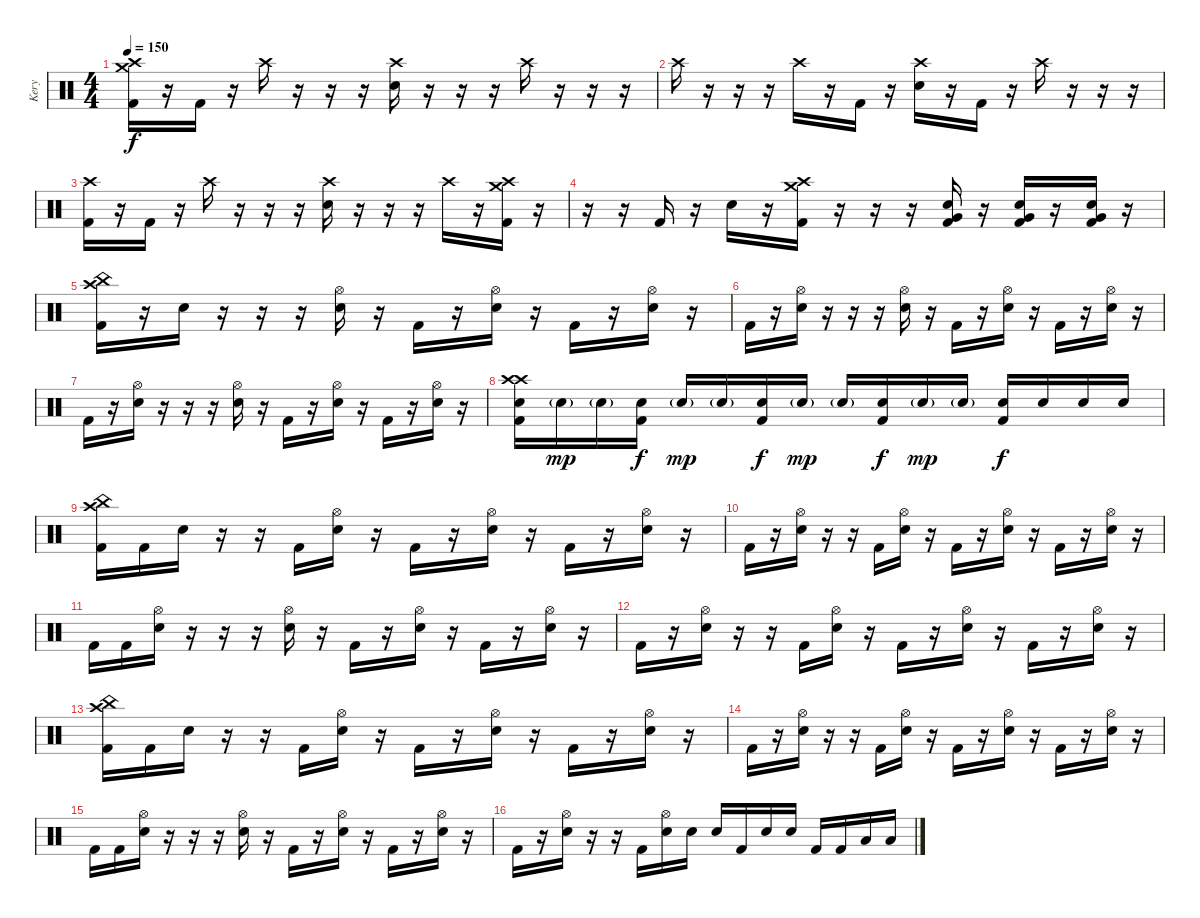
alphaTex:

\track ("Kery" "Kery") {instrument percussion}
\staff {score}
\articulation defaults
\ts (4 4)
\tempo 150
\clef neutral
\ks c
("Crash medium (hit)" "Crash high (hit)" "Kick (hit) 2").16{dy f} r.16 "Kick (hit) 2".16 r.16 "Crash high (hit)".16 r.16 r.16 r.16 ("Crash high (hit)" "Electric Snare (hit)").16 r.16 r.16 r.16 "Crash high (hit)".16 r.16 r.16 r.16 |
"Crash high (hit)".16 r.16 r.16 r.16 "Crash high (hit)".16 r.16 "Kick (hit) 2".16 r.16 ("Crash high (hit)" "Electric Snare (hit)").16 r.16 "Kick (hit) 2".16 r.16 "Crash high (hit)".16 r.16 r.16 r.16 |
("Crash high (hit)" "Kick (hit) 2").16 r.16 "Kick (hit) 2".16 r.16 "Crash high (hit)".16 r.16 r.16 r.16 ("Crash high (hit)" "Electric Snare (hit)").16 r.16 r.16 r.16 "Crash high (hit)".16 r.16 ("Crash high (hit)" "Crash medium (hit)" "Kick (hit) 2").16 r.16 |
r.16 r.16 "Kick (hit) 2".16 r.16 "Electric Snare (hit)".16 r.16 ("Crash medium (hit)" "Crash high (hit)" "Kick (hit) 2").16 r.16 r.16 r.16 ("Very Low Tom (hit)" "Electric Snare (hit)" "Kick (hit) 2").16 r.16 ("Very Low Tom (hit)" "Electric Snare (hit)" "Kick (hit) 2").16 r.16 ("Very Low Tom (hit)" "Electric Snare (hit)" "Kick (hit) 2").16 r.16 |
("Crash high (hit)" "China (hit)" "Kick (hit) 2").16 r.16 "Electric Snare (hit)".16 r.16 r.16 r.16 ("Hi-Hat (open)" "Electric Snare (hit)").16 r.16 "Kick (hit) 2".16 r.16 ("Hi-Hat (open)" "Electric Snare (hit)").16 r.16 "Kick (hit) 2".16 r.16 ("Hi-Hat (open)" "Electric Snare (hit)").16 r.16 |
"Kick (hit) 2".16 r.16 ("Hi-Hat (open)" "Electric Snare (hit)").16 r.16 r.16 r.16 ("Hi-Hat (open)" "Electric Snare (hit)").16 r.16 "Kick (hit) 2".16 r.16 ("Hi-Hat (open)" "Electric Snare (hit)").16 r.16 "Kick (hit) 2".16 r.16 ("Hi-Hat (open)" "Electric Snare (hit)").16 r.16 |
"Kick (hit) 2".16 r.16 ("Hi-Hat (open)" "Electric Snare (hit)").16 r.16 r.16 r.16 ("Hi-Hat (open)" "Electric Snare (hit)").16 r.16 "Kick (hit) 2".16 r.16 ("Hi-Hat (open)" "Electric Snare (hit)").16 r.16 "Kick (hit) 2".16 r.16 ("Hi-Hat (open)" "Electric Snare (hit)").16 r.16 |
("Crash high (hit)" "Crash high (hit)" "Electric Snare (hit)" "Kick (hit) 2").16 "Electric Snare (hit)"{g}.16{dy mp} "Electric Snare (hit)"{g}.16 ("Electric Snare (hit)" "Kick (hit) 2").16{dy f} "Electric Snare (hit)"{g}.16{dy mp} "Electric Snare (hit)"{g}.16 ("Electric Snare (hit)" "Kick (hit) 2").16{dy f} "Electric Snare (hit)"{g}.16{dy mp} "Electric Snare (hit)"{g}.16 ("Electric Snare (hit)" "Kick (hit) 2").16{dy f} "Electric Snare (hit)"{g}.16{dy mp} "Electric Snare (hit)"{g}.16 ("Electric Snare (hit)" "Kick (hit) 2").16{dy f} "Electric Snare (hit)".16 "Electric Snare (hit)".16 "Electric Snare (hit)".16 |
("Crash high (hit)" "China (hit)" "Kick (hit) 2").16 "Kick (hit) 2".16 "Electric Snare (hit)".16 r.16 r.16 "Kick (hit) 2".16 ("Hi-Hat (open)" "Electric Snare (hit)").16 r.16 "Kick (hit) 2".16 r.16 ("Hi-Hat (open)" "Electric Snare (hit)").16 r.16 "Kick (hit) 2".16 r.16 ("Hi-Hat (open)" "Electric Snare (hit)").16 r.16 |
"Kick (hit) 2".16 r.16 ("Hi-Hat (open)" "Electric Snare (hit)").16 r.16 r.16 "Kick (hit) 2".16 ("Hi-Hat (open)" "Electric Snare (hit)").16 r.16 "Kick (hit) 2".16 r.16 ("Hi-Hat (open)" "Electric Snare (hit)").16 r.16 "Kick (hit) 2".16 r.16 ("Hi-Hat (open)" "Electric Snare (hit)").16 r.16 |
"Kick (hit) 2".16 "Kick (hit) 2".16 ("Hi-Hat (open)" "Electric Snare (hit)").16 r.16 r.16 r.16 ("Hi-Hat (open)" "Electric Snare (hit)").16 r.16 "Kick (hit) 2".16 r.16 ("Hi-Hat (open)" "Electric Snare (hit)").16 r.16 "Kick (hit) 2".16 r.16 ("Hi-Hat (open)" "Electric Snare (hit)").16 r.16 |
"Kick (hit) 2".16 r.16 ("Hi-Hat (open)" "Electric Snare (hit)").16 r.16 r.16 "Kick (hit) 2".16 ("Hi-Hat (open)" "Electric Snare (hit)").16 r.16 "Kick (hit) 2".16 r.16 ("Hi-Hat (open)" "Electric Snare (hit)").16 r.16 "Kick (hit) 2".16 r.16 ("Hi-Hat (open)" "Electric Snare (hit)").16 r.16 |
("Crash high (hit)" "China (hit)" "Kick (hit) 2").16 "Kick (hit) 2".16 "Electric Snare (hit)".16 r.16 r.16 "Kick (hit) 2".16 ("Hi-Hat (open)" "Electric Snare (hit)").16 r.16 "Kick (hit) 2".16 r.16 ("Hi-Hat (open)" "Electric Snare (hit)").16 r.16 "Kick (hit) 2".16 r.16 ("Hi-Hat (open)" "Electric Snare (hit)").16 r.16 |
"Kick (hit) 2".16 r.16 ("Hi-Hat (open)" "Electric Snare (hit)").16 r.16 r.16 "Kick (hit) 2".16 ("Hi-Hat (open)" "Electric Snare (hit)").16 r.16 "Kick (hit) 2".16 r.16 ("Hi-Hat (open)" "Electric Snare (hit)").16 r.16 "Kick (hit) 2".16 r.16 ("Hi-Hat (open)" "Electric Snare (hit)").16 r.16 |
"Kick (hit) 2".16 "Kick (hit) 2".16 ("Hi-Hat (open)" "Electric Snare (hit)").16 r.16 r.16 r.16 ("Hi-Hat (open)" "Electric Snare (hit)").16 r.16 "Kick (hit) 2".16 r.16 ("Hi-Hat (open)" "Electric Snare (hit)").16 r.16 "Kick (hit) 2".16 r.16 ("Hi-Hat (open)" "Electric Snare (hit)").16 r.16 |
"Kick (hit) 2".16 r.16 ("Hi-Hat (open)" "Electric Snare (hit)").16 r.16 r.16 "Kick (hit) 2".16 ("Hi-Hat (open)" "Electric Snare (hit)").16 "Electric Snare (hit)".16 "Electric Snare (hit)".16 "Kick (hit) 2".16 "Electric Snare (hit)".16 "Electric Snare (hit)".16 "Kick (hit) 2".16 "Kick (hit) 2".16 "Low Tom (hit)".16 "Low Tom (hit)".16
